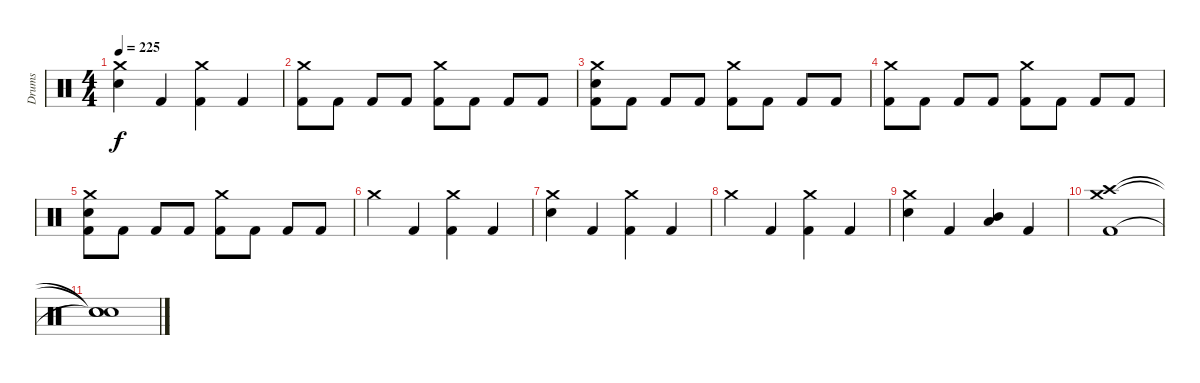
\track ("Drums" "Drums") {instrument percussion}
\staff {score}
\articulation defaults
\ts (4 4)
\tempo 225
\clef neutral
\ks c
("Crash medium (hit)" "Electric Snare (hit)").4{dy f} "Kick (hit) 2".4 ("Crash medium (hit)" "Kick (hit) 2").4 "Kick (hit) 2".4 |
("Crash medium (hit)" "Kick (hit) 2").8 "Kick (hit) 2".8 "Kick (hit) 2".8 "Kick (hit) 2".8 ("Crash medium (hit)" "Kick (hit) 2").8 "Kick (hit) 2".8 "Kick (hit) 2".8 "Kick (hit) 2".8 |
("Crash medium (hit)" "Electric Snare (hit)" "Kick (hit) 2").8 "Kick (hit) 2".8 "Kick (hit) 2".8 "Kick (hit) 2".8 ("Crash medium (hit)" "Kick (hit) 2").8 "Kick (hit) 2".8 "Kick (hit) 2".8 "Kick (hit) 2".8 |
("Crash medium (hit)" "Kick (hit) 2").8 "Kick (hit) 2".8 "Kick (hit) 2".8 "Kick (hit) 2".8 ("Crash medium (hit)" "Kick (hit) 2").8 "Kick (hit) 2".8 "Kick (hit) 2".8 "Kick (hit) 2".8 |
("Crash medium (hit)" "Electric Snare (hit)" "Kick (hit) 2").8 "Kick (hit) 2".8 "Kick (hit) 2".8 "Kick (hit) 2".8 ("Crash medium (hit)" "Kick (hit) 2").8 "Kick (hit) 2".8 "Kick (hit) 2".8 "Kick (hit) 2".8 |
"Crash medium (hit)".4 "Kick (hit) 2".4 ("Crash medium (hit)" "Kick (hit) 2").4 "Kick (hit) 2".4 |
("Crash medium (hit)" "Electric Snare (hit)").4 "Kick (hit) 2".4 ("Crash medium (hit)" "Kick (hit) 2").4 "Kick (hit) 2".4 |
"Crash medium (hit)".4 "Kick (hit) 2".4 ("Crash medium (hit)" "Kick (hit) 2").4 "Kick (hit) 2".4 |
("Crash medium (hit)" "Electric Snare (hit)").4 "Kick (hit) 2".4 ("Mid Tom (hit)" "Low Tom (hit)").4 "Kick (hit) 2".4 |
("Crash high (hit)" "Crash medium (hit)" "Kick (hit) 2").1 |
("Snare (hit)"{t} "Snare (hit)"{t} "Snare (hit)"{t}).1
